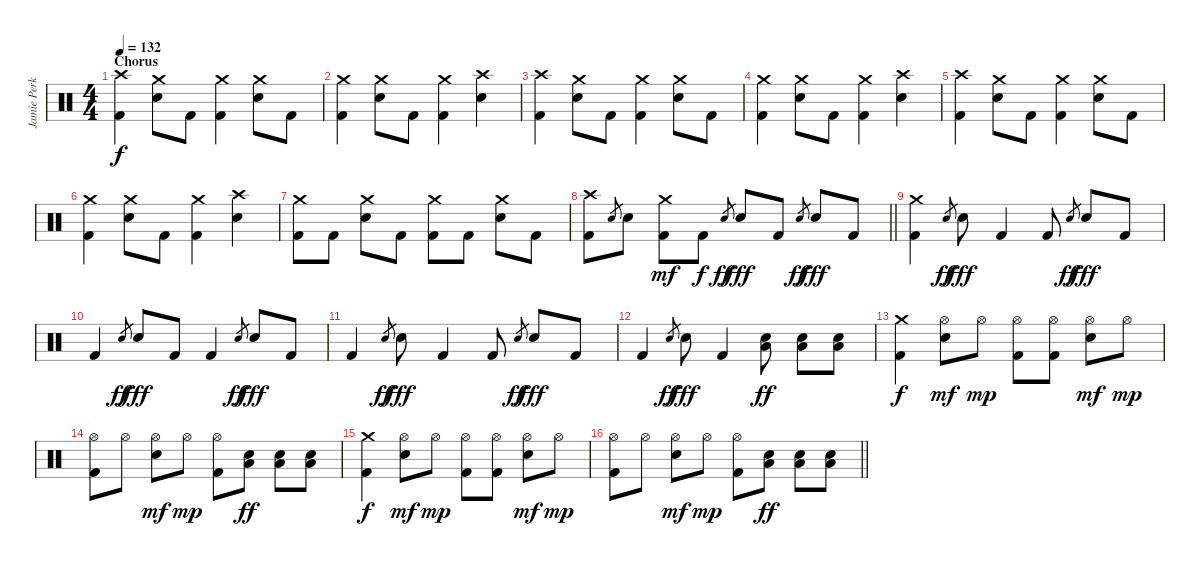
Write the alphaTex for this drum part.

\track ("Jamie Perkins" "Jamie Perk") {instrument percussion}
\staff {score}
\articulation defaults
\ts (4 4)
\section ("" "Chorus")
\tempo 132
\clef neutral
\ks c
("Crash high (hit)" "Kick (hit) 2").4{dy f} ("Crash medium (hit)" "Snare (hit) 2").8 "Kick (hit) 2".8 ("Crash medium (hit)" "Kick (hit) 2").4 ("Crash medium (hit)" "Snare (hit) 2").8 "Kick (hit) 2".8 |
("Crash medium (hit)" "Kick (hit) 2").4 ("Crash medium (hit)" "Snare (hit) 2").8 "Kick (hit) 2".8 ("Crash medium (hit)" "Kick (hit) 2").4 ("Crash high (hit)" "Snare (hit) 2").4 |
("Crash high (hit)" "Kick (hit) 2").4 ("Crash medium (hit)" "Snare (hit) 2").8 "Kick (hit) 2".8 ("Crash medium (hit)" "Kick (hit) 2").4 ("Crash medium (hit)" "Snare (hit) 2").8 "Kick (hit) 2".8 |
("Crash medium (hit)" "Kick (hit) 2").4 ("Crash medium (hit)" "Snare (hit) 2").8 "Kick (hit) 2".8 ("Crash medium (hit)" "Kick (hit) 2").4 ("Crash high (hit)" "Snare (hit) 2").4 |
("Crash high (hit)" "Kick (hit) 2").4 ("Crash medium (hit)" "Snare (hit) 2").8 "Kick (hit) 2".8 ("Crash medium (hit)" "Kick (hit) 2").4 ("Crash medium (hit)" "Snare (hit) 2").8 "Kick (hit) 2".8 |
("Crash medium (hit)" "Kick (hit) 2").4 ("Crash medium (hit)" "Snare (hit) 2").8 "Kick (hit) 2".8 ("Crash medium (hit)" "Kick (hit) 2").4 ("Crash high (hit)" "Snare (hit) 2").4 |
("Crash medium (hit)" "Kick (hit) 2").8 "Kick (hit) 2".8 ("Crash medium (hit)" "Snare (hit) 2").8 "Kick (hit) 2".8 ("Crash medium (hit)" "Kick (hit) 2").8 "Kick (hit) 2".8 ("Crash medium (hit)" "Snare (hit) 2").8 "Kick (hit) 2".8 |
\barLineRight lightlight
("Crash high (hit)" "Kick (hit) 2").8 "Snare (hit) 2".8{gr} "Snare (hit) 2".8 ("Crash medium (hit)" "Kick (hit) 2").8{dy mf} "Kick (hit) 2".8{dy f} "Snare (hit) 2".8{gr dy ff} "Snare (hit) 2".8{dy fff} "Kick (hit) 2".8 "Snare (hit) 2".8{gr dy ff} "Snare (hit) 2".8{dy fff} "Kick (hit) 2".8 |
("Crash medium (hit)" "Kick (hit) 2").4 "Snare (hit) 2".8{gr dy ff} "Snare (hit) 2".8{dy fff} "Kick (hit) 2".4 "Kick (hit) 2".8 "Snare (hit) 2".8{gr dy ff} "Snare (hit) 2".8{dy fff} "Kick (hit) 2".8 |
"Kick (hit) 2".4 "Snare (hit) 2".8{gr dy ff} "Snare (hit) 2".8{dy fff} "Kick (hit) 2".8 "Kick (hit) 2".4 "Snare (hit) 2".8{gr dy ff} "Snare (hit) 2".8{dy fff} "Kick (hit) 2".8 |
"Kick (hit) 2".4 "Snare (hit) 2".8{gr dy ff} "Snare (hit) 2".8{dy fff} "Kick (hit) 2".4 "Kick (hit) 2".8 "Snare (hit) 2".8{gr dy ff} "Snare (hit) 2".8{dy fff} "Kick (hit) 2".8 |
"Kick (hit) 2".4 "Snare (hit) 2".8{gr dy ff} "Snare (hit) 2".8{dy fff} "Kick (hit) 2".4 ("Low Tom (hit)" "Snare (hit) 2").8{dy ff} ("Low Tom (hit)" "Snare (hit) 2").8 ("Low Tom (hit)" "Snare (hit) 2").8 |
("Crash medium (hit)" "Kick (hit) 2").4{dy f} ("Hi-Hat (open)" "Snare (hit) 2").8{dy mf} "Hi-Hat (open)".8{dy mp} ("Hi-Hat (open)" "Kick (hit) 2").8 ("Hi-Hat (open)" "Kick (hit) 2").8 ("Hi-Hat (open)" "Snare (hit) 2").8{dy mf} "Hi-Hat (open)".8{dy mp} |
("Hi-Hat (open)" "Kick (hit) 2").8 "Hi-Hat (open)".8 ("Hi-Hat (open)" "Snare (hit) 2").8{dy mf} "Hi-Hat (open)".8{dy mp} ("Hi-Hat (open)" "Kick (hit) 2").8 ("Low Tom (hit)" "Snare (hit) 2").8{dy ff} ("Low Tom (hit)" "Snare (hit) 2").8 ("Low Tom (hit)" "Snare (hit) 2").8 |
("Crash medium (hit)" "Kick (hit) 2").4{dy f} ("Hi-Hat (open)" "Snare (hit) 2").8{dy mf} "Hi-Hat (open)".8{dy mp} ("Hi-Hat (open)" "Kick (hit) 2").8 ("Hi-Hat (open)" "Kick (hit) 2").8 ("Hi-Hat (open)" "Snare (hit) 2").8{dy mf} "Hi-Hat (open)".8{dy mp} |
\barLineRight lightlight
("Hi-Hat (open)" "Kick (hit) 2").8 "Hi-Hat (open)".8 ("Hi-Hat (open)" "Snare (hit) 2").8{dy mf} "Hi-Hat (open)".8{dy mp} ("Hi-Hat (open)" "Kick (hit) 2").8 ("Low Tom (hit)" "Snare (hit) 2").8{dy ff} ("Low Tom (hit)" "Snare (hit) 2").8 ("Low Tom (hit)" "Snare (hit) 2").8
